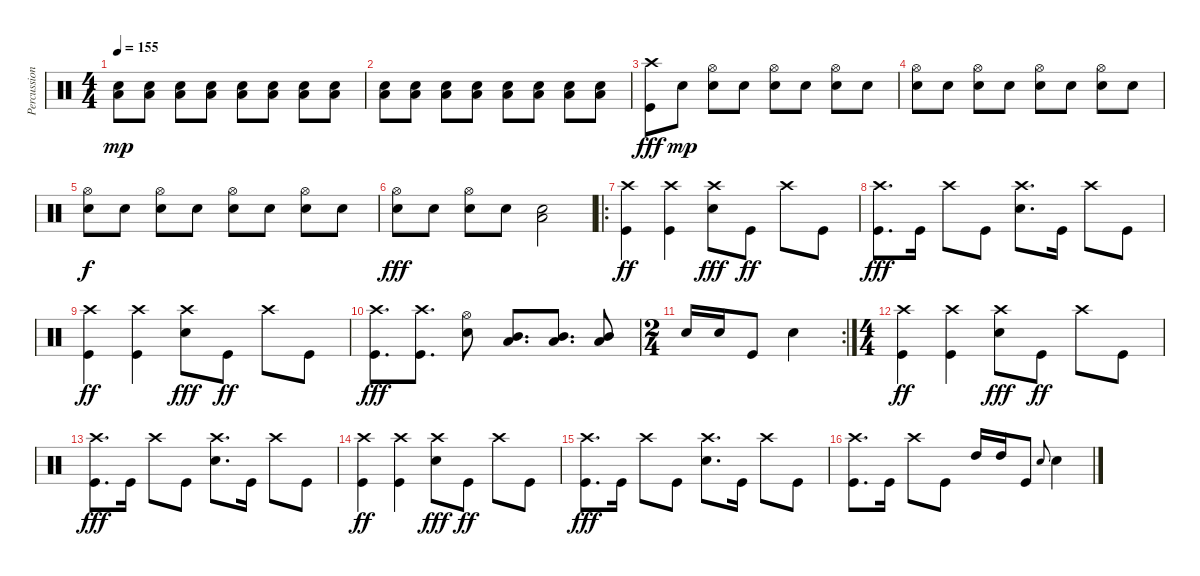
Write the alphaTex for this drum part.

\track ("Percussion" "Percussion") {instrument percussion}
\staff {score}
\articulation defaults
\ts (4 4)
\tempo 155
\clef neutral
\ks c
("Low Tom (hit)" "Snare (hit) 2").8{dy mp} ("Low Tom (hit)" "Snare (hit) 2").8 ("Low Tom (hit)" "Snare (hit) 2").8 ("Low Tom (hit)" "Snare (hit) 2").8 ("Low Tom (hit)" "Snare (hit) 2").8 ("Low Tom (hit)" "Snare (hit) 2").8 ("Low Tom (hit)" "Snare (hit) 2").8 ("Low Tom (hit)" "Snare (hit) 2").8 |
("Low Tom (hit)" "Snare (hit) 2").8 ("Low Tom (hit)" "Snare (hit) 2").8 ("Low Tom (hit)" "Snare (hit) 2").8 ("Low Tom (hit)" "Snare (hit) 2").8 ("Low Tom (hit)" "Snare (hit) 2").8 ("Low Tom (hit)" "Snare (hit) 2").8 ("Low Tom (hit)" "Snare (hit) 2").8 ("Low Tom (hit)" "Snare (hit) 2").8 |
("Crash high (hit)" "Kick (hit)").8{dy fff} "Snare (hit) 2".8{dy mp} ("Hi-Hat (open)" "Snare (hit) 2").8 "Snare (hit) 2".8 ("Hi-Hat (open)" "Snare (hit) 2").8 "Snare (hit) 2".8 ("Hi-Hat (open)" "Snare (hit) 2").8 "Snare (hit) 2".8 |
("Hi-Hat (open)" "Snare (hit) 2").8 "Snare (hit) 2".8 ("Hi-Hat (open)" "Snare (hit) 2").8 "Snare (hit) 2".8 ("Hi-Hat (open)" "Snare (hit) 2").8 "Snare (hit) 2".8 ("Hi-Hat (open)" "Snare (hit) 2").8 "Snare (hit) 2".8 |
("Hi-Hat (open)" "Snare (hit) 2").8{dy f} "Snare (hit) 2".8 ("Hi-Hat (open)" "Snare (hit) 2").8 "Snare (hit) 2".8 ("Hi-Hat (open)" "Snare (hit) 2").8 "Snare (hit) 2".8 ("Hi-Hat (open)" "Snare (hit) 2").8 "Snare (hit) 2".8 |
("Hi-Hat (open)" "Snare (hit) 2").8{dy fff} "Snare (hit) 2".8 ("Hi-Hat (open)" "Snare (hit) 2").8 "Snare (hit) 2".8 ("Low Tom (hit)" "Snare (hit) 2").2 |
\ro
("Crash high (hit)" "Kick (hit)").4{dy ff} ("Crash high (hit)" "Kick (hit)").4 ("Crash high (hit)" "Snare (hit) 2").8{dy fff} "Kick (hit)".8{dy ff} "Crash high (hit)".8 "Kick (hit)".8 |
("Crash high (hit)" "Kick (hit)").8{d dy fff} "Kick (hit)".16 "Crash high (hit)".8 "Kick (hit)".8 ("Crash high (hit)" "Snare (hit) 2").8{d} "Kick (hit)".16 "Crash high (hit)".8 "Kick (hit)".8 |
("Crash high (hit)" "Kick (hit)").4{dy ff} ("Crash high (hit)" "Kick (hit)").4 ("Crash high (hit)" "Snare (hit) 2").8{dy fff} "Kick (hit)".8{dy ff} "Crash high (hit)".8 "Kick (hit)".8 |
("Crash high (hit)" "Kick (hit)").8{d dy fff} ("Crash high (hit)" "Kick (hit)").8{d} ("Hi-Hat (open)" "Snare (hit) 2").8 ("Low Tom (hit)" "Mid Tom (hit)").8{d} ("Low Tom (hit)" "Mid Tom (hit)").8{d} ("Low Tom (hit)" "Mid Tom (hit)").8 |
\rc 2
\ts (2 4)
"Snare (hit) 2".16 "Snare (hit) 2".16 "Kick (hit)".8 "Snare (hit) 2".4 |
\ts (4 4)
("Crash high (hit)" "Kick (hit)").4{dy ff} ("Crash high (hit)" "Kick (hit)").4 ("Crash high (hit)" "Snare (hit) 2").8{dy fff} "Kick (hit)".8{dy ff} "Crash high (hit)".8 "Kick (hit)".8 |
("Crash high (hit)" "Kick (hit)").8{d dy fff} "Kick (hit)".16 "Crash high (hit)".8 "Kick (hit)".8 ("Crash high (hit)" "Snare (hit) 2").8{d} "Kick (hit)".16 "Crash high (hit)".8 "Kick (hit)".8 |
("Crash high (hit)" "Kick (hit)").4{dy ff} ("Crash high (hit)" "Kick (hit)").4 ("Crash high (hit)" "Snare (hit) 2").8{dy fff} "Kick (hit)".8{dy ff} "Crash high (hit)".8 "Kick (hit)".8 |
("Crash high (hit)" "Kick (hit)").8{d dy fff} "Kick (hit)".16 "Crash high (hit)".8 "Kick (hit)".8 ("Crash high (hit)" "Snare (hit) 2").8{d} "Kick (hit)".16 "Crash high (hit)".8 "Kick (hit)".8 |
("Crash high (hit)" "Kick (hit)").8{d} "Kick (hit)".16 "Crash high (hit)".8 "Kick (hit)".8 "High Tom (hit)".16 "High Tom (hit)".16 "Kick (hit)".8 "Snare (hit) 2".8{gr onbeat} "Snare (hit) 2".4
